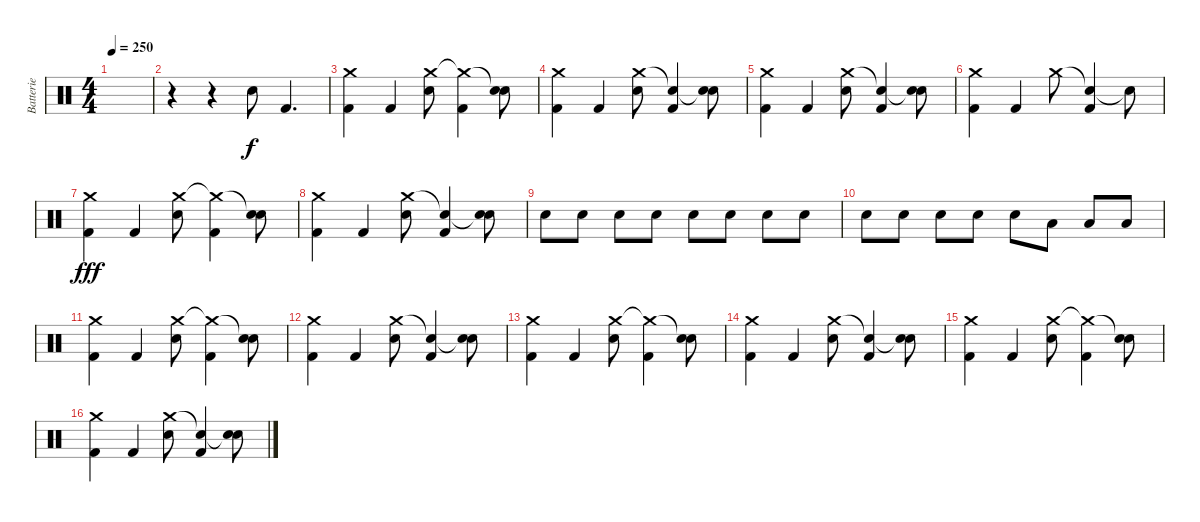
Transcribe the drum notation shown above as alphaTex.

\track ("Batterie" "Batterie") {instrument percussion}
\staff {score}
\articulation defaults
\ts (4 4)
\tempo 250
\clef neutral
\ks c
|
r.4 r.4 "Electric Snare (hit)".8 "Kick (hit) 2".4{d} |
("Crash medium (hit)" "Kick (hit) 2").4 "Kick (hit) 2".4 ("Crash medium (hit)" "Electric Snare (hit)").8 ("Crash medium (hit)"{t} "Kick (hit) 2").4 ("Snare (hit)"{t} "Electric Snare (hit)").8 |
("Crash medium (hit)" "Kick (hit) 2").4 "Kick (hit) 2".4 ("Crash medium (hit)" "Electric Snare (hit)").8 ("Snare (hit)"{t} "Kick (hit) 2").4 ("Snare (hit)"{t} "Electric Snare (hit)").8 |
("Crash medium (hit)" "Kick (hit) 2").4 "Kick (hit) 2".4 ("Crash medium (hit)" "Electric Snare (hit)").8 ("Snare (hit)"{t} "Kick (hit) 2").4 ("Snare (hit)"{t} "Electric Snare (hit)").8 |
("Crash medium (hit)" "Kick (hit) 2").4 "Kick (hit) 2".4 "Crash medium (hit)".8 ("Snare (hit)"{t} "Kick (hit) 2").4 "Snare (hit)"{t}.8{dy f} |
("Crash medium (hit)" "Kick (hit) 2").4{dy fff} "Kick (hit) 2".4 ("Crash medium (hit)" "Electric Snare (hit)").8 ("Crash medium (hit)"{t} "Kick (hit) 2").4 ("Snare (hit)"{t} "Electric Snare (hit)").8 |
("Crash medium (hit)" "Kick (hit) 2").4 "Kick (hit) 2".4 ("Crash medium (hit)" "Electric Snare (hit)").8 ("Snare (hit)"{t} "Kick (hit) 2").4 ("Snare (hit)"{t} "Electric Snare (hit)").8 |
"Electric Snare (hit)".8 "Electric Snare (hit)".8 "Electric Snare (hit)".8 "Electric Snare (hit)".8 "Electric Snare (hit)".8 "Electric Snare (hit)".8 "Electric Snare (hit)".8 "Electric Snare (hit)".8 |
"Electric Snare (hit)".8 "Electric Snare (hit)".8 "Electric Snare (hit)".8 "Electric Snare (hit)".8 "Electric Snare (hit)".8 "Low Floor Tom (hit)".8 "Low Floor Tom (hit)".8 "Low Floor Tom (hit)".8 |
("Crash medium (hit)" "Kick (hit) 2").4 "Kick (hit) 2".4 ("Crash medium (hit)" "Electric Snare (hit)").8 ("Crash medium (hit)"{t} "Kick (hit) 2").4 ("Snare (hit)"{t} "Electric Snare (hit)").8 |
("Crash medium (hit)" "Kick (hit) 2").4 "Kick (hit) 2".4 ("Crash medium (hit)" "Electric Snare (hit)").8 ("Snare (hit)"{t} "Kick (hit) 2").4 ("Snare (hit)"{t} "Electric Snare (hit)").8 |
("Crash medium (hit)" "Kick (hit) 2").4 "Kick (hit) 2".4 ("Crash medium (hit)" "Electric Snare (hit)").8 ("Crash medium (hit)"{t} "Kick (hit) 2").4 ("Snare (hit)"{t} "Electric Snare (hit)").8 |
("Crash medium (hit)" "Kick (hit) 2").4 "Kick (hit) 2".4 ("Crash medium (hit)" "Electric Snare (hit)").8 ("Snare (hit)"{t} "Kick (hit) 2").4 ("Snare (hit)"{t} "Electric Snare (hit)").8 |
("Crash medium (hit)" "Kick (hit) 2").4 "Kick (hit) 2".4 ("Crash medium (hit)" "Electric Snare (hit)").8 ("Crash medium (hit)"{t} "Kick (hit) 2").4 ("Snare (hit)"{t} "Electric Snare (hit)").8 |
("Crash medium (hit)" "Kick (hit) 2").4 "Kick (hit) 2".4 ("Crash medium (hit)" "Electric Snare (hit)").8 ("Snare (hit)"{t} "Kick (hit) 2").4 ("Snare (hit)"{t} "Electric Snare (hit)").8
